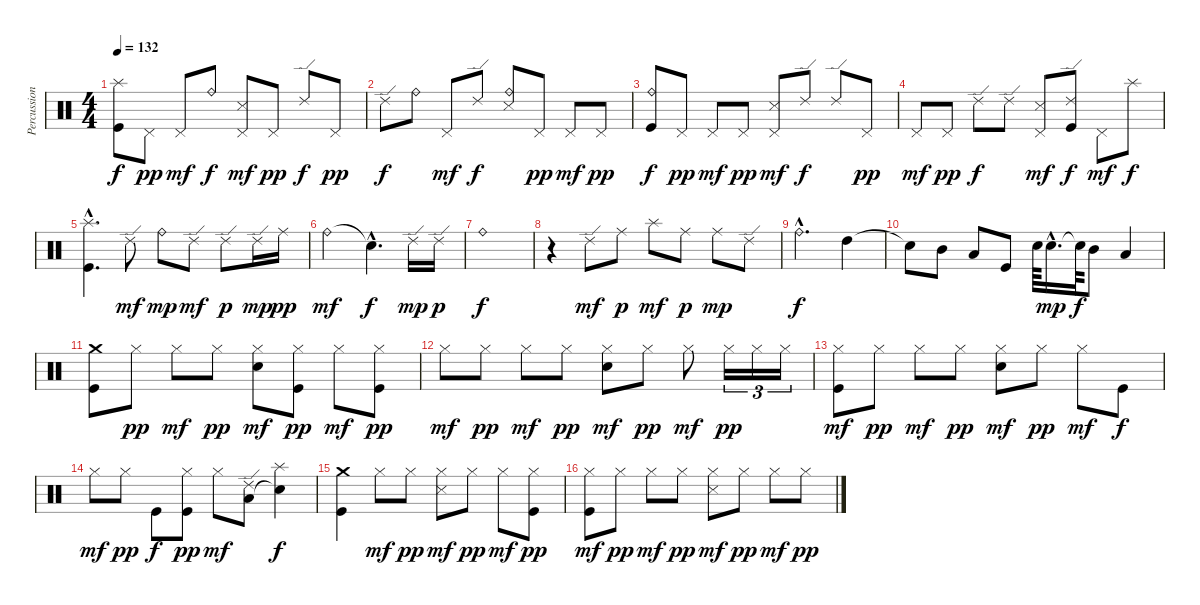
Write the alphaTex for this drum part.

\track ("Percussion" "Percussion") {instrument percussion}
\staff {score}
\articulation defaults
\ts (4 4)
\tempo 132
\clef neutral
\ks c
("Splash (hit)" "Kick (hit)").8{dy f} "Pedal Hi-Hat (hit)".8{dy pp} "Pedal Hi-Hat (hit)".8{dy mf} "Ride (bell)".8{dy f} ("Pedal Hi-Hat (hit)" "Snare (side stick) 3").8{dy mf} "Pedal Hi-Hat (hit)".8{dy pp} "Ride (edge) 2".8{dy f} "Pedal Hi-Hat (hit)".8{dy pp} |
"Ride (edge) 2".8{dy f} "Ride (bell)".8 "Pedal Hi-Hat (hit)".8{dy mf} "Ride (edge) 2".8{dy f} ("Ride (bell)" "Snare (side stick) 3").8 "Pedal Hi-Hat (hit)".8{dy pp} "Pedal Hi-Hat (hit)".8{dy mf} "Pedal Hi-Hat (hit)".8{dy pp} |
("Ride (bell)" "Kick (hit)").8{dy f} "Pedal Hi-Hat (hit)".8{dy pp} "Pedal Hi-Hat (hit)".8{dy mf} "Pedal Hi-Hat (hit)".8{dy pp} ("Pedal Hi-Hat (hit)" "Snare (side stick) 3").8{dy mf} "Ride (edge) 2".8{dy f} "Ride (edge) 2".8 "Pedal Hi-Hat (hit)".8{dy pp} |
"Pedal Hi-Hat (hit)".8{dy mf} "Pedal Hi-Hat (hit)".8{dy pp} "Ride (edge) 2".8{dy f} "Ride (edge) 2".8 ("Pedal Hi-Hat (hit)" "Snare (side stick) 3").8{dy mf} ("Ride (edge) 2" "Kick (hit)").8{dy f} "Pedal Hi-Hat (hit)".8{dy mf} "Splash (hit)".8{dy f} |
("Splash (hit)"{hac} "Kick (hit)"{hac}).4{d} "Ride (edge) 2".8{dy mf} "Ride (bell)".8{dy mp} "Ride (edge) 2".8{dy mf} "Ride (edge) 2".8{dy p} "Ride (edge) 2".16{dy mp} "Ride (middle)".16{dy pp} |
"Ride (bell)".2{dy mf} "Snare (hit)"{hac t}.4{d dy f} "Ride (edge) 2".16{dy mp} "Ride (edge) 2".16{dy p} |
"Ride (bell)".1{dy f} |
r.4 "Ride (edge) 2".8{dy mf} "Ride (middle)".8{dy p} "Splash (hit)".8{dy mf} "Ride (middle)".8{dy p} "Ride (middle)".8{dy mp} "Ride (edge) 2".8 |
"Ride (bell)"{hac}.2{d dy f} "High Tom (hit)".4 |
"Snare (hit)"{t}.8 "Mid Tom (hit)".8 "Low Tom (hit)".8 "Kick (hit)".8 "Snare (hit) 2".64 "Snare (hit) 2"{hac}.16{d dy mp} "Snare (hit)"{t}.64{dy f} "Mid Tom (hit)".8 "Low Tom (hit)".4 |
("Crash medium (hit)" "Kick (hit)").8 "Hi-Hat (closed)".8{dy pp} "Hi-Hat (closed)".8{dy mf} "Hi-Hat (closed)".8{dy pp} ("Hi-Hat (closed)" "Snare (hit) 2").8{dy mf} ("Hi-Hat (closed)" "Kick (hit)").8{dy pp} "Hi-Hat (closed)".8{dy mf} ("Hi-Hat (closed)" "Kick (hit)").8{dy pp} |
"Hi-Hat (closed)".8{dy mf} "Hi-Hat (closed)".8{dy pp} "Hi-Hat (closed)".8{dy mf} "Hi-Hat (closed)".8{dy pp} ("Hi-Hat (closed)" "Snare (hit) 2").8{dy mf} "Hi-Hat (closed)".8{dy pp} "Hi-Hat (closed)".8{dy mf} "Hi-Hat (closed)".16{tu (3 2) dy pp} "Hi-Hat (closed)".16{tu (3 2)} "Hi-Hat (closed)".16{tu (3 2)} |
("Hi-Hat (closed)" "Kick (hit)").8{dy mf} "Hi-Hat (closed)".8{dy pp} "Hi-Hat (closed)".8{dy mf} "Hi-Hat (closed)".8{dy pp} ("Hi-Hat (closed)" "Snare (hit) 2").8{dy mf} "Hi-Hat (closed)".8{dy pp} "Hi-Hat (closed)".8{dy mf} "Kick (hit)".8{dy f} |
"Hi-Hat (closed)".8{dy mf} "Hi-Hat (closed)".8{dy pp} "Kick (hit)".8{dy f} ("Hi-Hat (closed)" "Kick (hit)").8{dy pp} "Hi-Hat (closed)".8{dy mf} ("Ride (edge) 2" "Low Tom (hit)").8 ("Splash (hit)" "Snare (hit)"{t}).4{dy f} |
("Crash medium (hit)" "Kick (hit)").4 "Hi-Hat (closed)".8{dy mf} "Hi-Hat (closed)".8{dy pp} ("Hi-Hat (closed)" "Snare (side stick) 3").8{dy mf} "Hi-Hat (closed)".8{dy pp} "Hi-Hat (closed)".8{dy mf} ("Hi-Hat (closed)" "Kick (hit)").8{dy pp} |
("Hi-Hat (closed)" "Kick (hit)").8{dy mf} "Hi-Hat (closed)".8{dy pp} "Hi-Hat (closed)".8{dy mf} "Hi-Hat (closed)".8{dy pp} ("Hi-Hat (closed)" "Snare (side stick) 3").8{dy mf} "Hi-Hat (closed)".8{dy pp} "Hi-Hat (closed)".8{dy mf} "Hi-Hat (closed)".8{dy pp}
